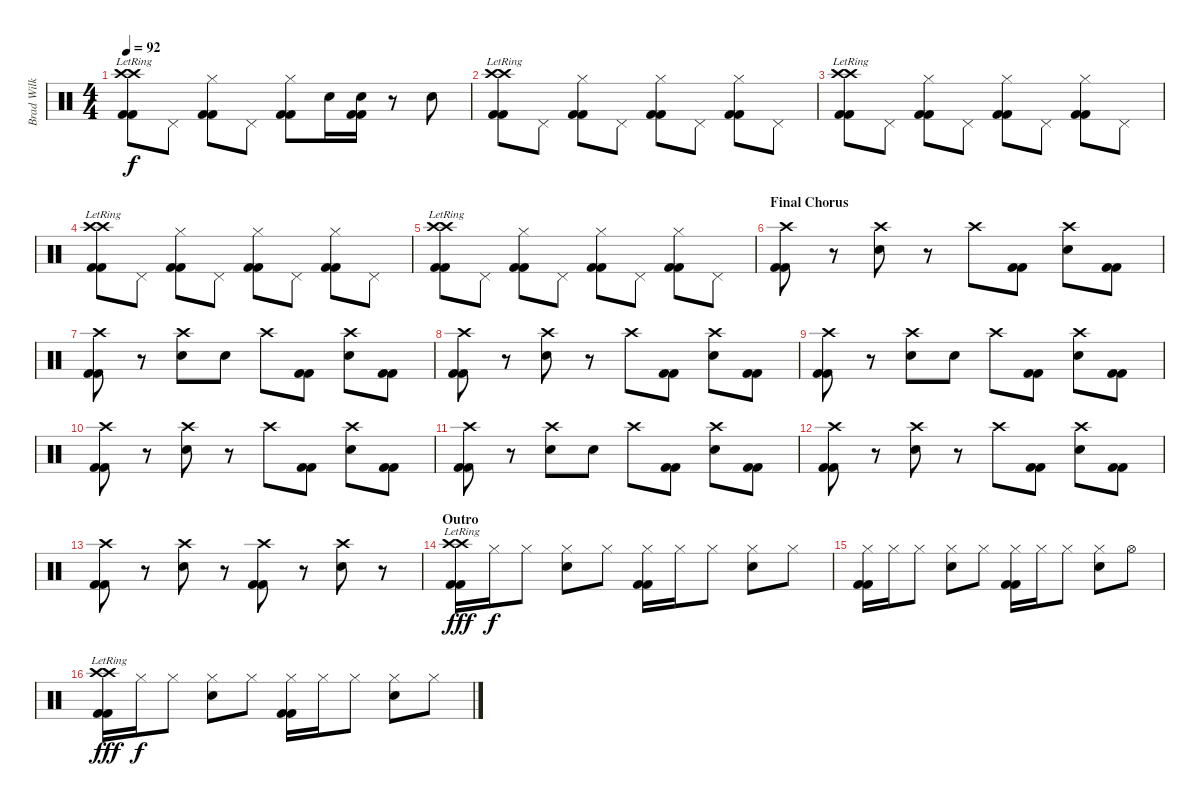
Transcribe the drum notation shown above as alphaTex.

\track ("Brad Wilk" "Brad Wilk") {instrument percussion}
\staff {score}
\articulation defaults
\ts (4 4)
\tempo 92
\clef neutral
\ks c
("Crash high (hit)"{lr} "Crash high (hit)"{lr} "Kick (hit) 2" "Kick (hit) 2").8{dy f} "Pedal Hi-Hat (hit)".8 ("Hi-Hat (closed)" "Kick (hit) 2" "Kick (hit) 2").8 "Pedal Hi-Hat (hit)".8 ("Hi-Hat (closed)" "Kick (hit) 2" "Kick (hit) 2").8 "Electric Snare (hit)".16 ("Electric Snare (hit)" "Kick (hit) 2" "Kick (hit) 2").16 r.8 "Electric Snare (hit)".8 |
("Crash high (hit)"{lr} "Crash high (hit)"{lr} "Kick (hit) 2" "Kick (hit) 2").8 "Pedal Hi-Hat (hit)".8 ("Hi-Hat (closed)" "Kick (hit) 2" "Kick (hit) 2").8 "Pedal Hi-Hat (hit)".8 ("Hi-Hat (closed)" "Kick (hit) 2" "Kick (hit) 2").8 "Pedal Hi-Hat (hit)".8 ("Hi-Hat (closed)" "Kick (hit) 2" "Kick (hit) 2").8 "Pedal Hi-Hat (hit)".8 |
("Crash high (hit)"{lr} "Crash high (hit)"{lr} "Kick (hit) 2" "Kick (hit) 2").8 "Pedal Hi-Hat (hit)".8 ("Hi-Hat (closed)" "Kick (hit) 2" "Kick (hit) 2").8 "Pedal Hi-Hat (hit)".8 ("Hi-Hat (closed)" "Kick (hit) 2" "Kick (hit) 2").8 "Pedal Hi-Hat (hit)".8 ("Hi-Hat (closed)" "Kick (hit) 2" "Kick (hit) 2").8 "Pedal Hi-Hat (hit)".8 |
("Crash high (hit)"{lr} "Crash high (hit)"{lr} "Kick (hit) 2" "Kick (hit) 2").8 "Pedal Hi-Hat (hit)".8 ("Hi-Hat (closed)" "Kick (hit) 2" "Kick (hit) 2").8 "Pedal Hi-Hat (hit)".8 ("Hi-Hat (closed)" "Kick (hit) 2" "Kick (hit) 2").8 "Pedal Hi-Hat (hit)".8 ("Hi-Hat (closed)" "Kick (hit) 2" "Kick (hit) 2").8 "Pedal Hi-Hat (hit)".8 |
("Crash high (hit)"{lr} "Crash high (hit)"{lr} "Kick (hit) 2" "Kick (hit) 2").8 "Pedal Hi-Hat (hit)".8 ("Hi-Hat (closed)" "Kick (hit) 2" "Kick (hit) 2").8 "Pedal Hi-Hat (hit)".8 ("Hi-Hat (closed)" "Kick (hit) 2" "Kick (hit) 2").8 "Pedal Hi-Hat (hit)".8 ("Hi-Hat (closed)" "Kick (hit) 2" "Kick (hit) 2").8 "Pedal Hi-Hat (hit)".8 |
\section ("" "Final Chorus")
("Crash high (hit)" "Kick (hit) 2" "Kick (hit) 2").8 r.8 ("Crash high (hit)" "Electric Snare (hit)").8 r.8 "Crash high (hit)".8 ("Kick (hit) 2" "Kick (hit) 2").8 ("Crash high (hit)" "Electric Snare (hit)").8 ("Kick (hit) 2" "Kick (hit) 2").8 |
("Crash high (hit)" "Kick (hit) 2" "Kick (hit) 2").8 r.8 ("Crash high (hit)" "Electric Snare (hit)").8 "Electric Snare (hit)".8 "Crash high (hit)".8 ("Kick (hit) 2" "Kick (hit) 2").8 ("Crash high (hit)" "Electric Snare (hit)").8 ("Kick (hit) 2" "Kick (hit) 2").8 |
("Crash high (hit)" "Kick (hit) 2" "Kick (hit) 2").8 r.8 ("Crash high (hit)" "Electric Snare (hit)").8 r.8 "Crash high (hit)".8 ("Kick (hit) 2" "Kick (hit) 2").8 ("Crash high (hit)" "Electric Snare (hit)").8 ("Kick (hit) 2" "Kick (hit) 2").8 |
("Crash high (hit)" "Kick (hit) 2" "Kick (hit) 2").8 r.8 ("Crash high (hit)" "Electric Snare (hit)").8 "Electric Snare (hit)".8 "Crash high (hit)".8 ("Kick (hit) 2" "Kick (hit) 2").8 ("Crash high (hit)" "Electric Snare (hit)").8 ("Kick (hit) 2" "Kick (hit) 2").8 |
("Crash high (hit)" "Kick (hit) 2" "Kick (hit) 2").8 r.8 ("Crash high (hit)" "Electric Snare (hit)").8 r.8 "Crash high (hit)".8 ("Kick (hit) 2" "Kick (hit) 2").8 ("Crash high (hit)" "Electric Snare (hit)").8 ("Kick (hit) 2" "Kick (hit) 2").8 |
("Crash high (hit)" "Kick (hit) 2" "Kick (hit) 2").8 r.8 ("Crash high (hit)" "Electric Snare (hit)").8 "Electric Snare (hit)".8 "Crash high (hit)".8 ("Kick (hit) 2" "Kick (hit) 2").8 ("Crash high (hit)" "Electric Snare (hit)").8 ("Kick (hit) 2" "Kick (hit) 2").8 |
("Crash high (hit)" "Kick (hit) 2" "Kick (hit) 2").8 r.8 ("Crash high (hit)" "Electric Snare (hit)").8 r.8 "Crash high (hit)".8 ("Kick (hit) 2" "Kick (hit) 2").8 ("Crash high (hit)" "Electric Snare (hit)").8 ("Kick (hit) 2" "Kick (hit) 2").8 |
("Crash high (hit)" "Kick (hit) 2" "Kick (hit) 2").8 r.8 ("Crash high (hit)" "Electric Snare (hit)").8 r.8 ("Crash high (hit)" "Kick (hit) 2" "Kick (hit) 2").8 r.8 ("Crash high (hit)" "Electric Snare (hit)").8 r.8 |
\section ("" "Outro")
("Crash high (hit)"{lr} "Crash high (hit)"{lr} "Kick (hit) 2" "Kick (hit) 2").16{dy fff} "Hi-Hat (closed)".16{dy f} "Hi-Hat (closed)".8 ("Hi-Hat (closed)" "Electric Snare (hit)").8 "Hi-Hat (closed)".8 ("Hi-Hat (closed)" "Kick (hit) 2" "Kick (hit) 2").16 "Hi-Hat (closed)".16 "Hi-Hat (closed)".8 ("Hi-Hat (closed)" "Snare (hit) 2").8 "Hi-Hat (closed)".8 |
("Hi-Hat (closed)" "Kick (hit) 2" "Kick (hit) 2").16 "Hi-Hat (closed)".16 "Hi-Hat (closed)".8 ("Hi-Hat (closed)" "Snare (hit) 2").8 "Hi-Hat (closed)".8 ("Hi-Hat (closed)" "Kick (hit) 2" "Kick (hit) 2").16 "Hi-Hat (closed)".16 "Hi-Hat (closed)".8 ("Hi-Hat (closed)" "Snare (hit) 2").8 "Hi-Hat (open)".8 |
("Crash high (hit)"{lr} "Crash high (hit)"{lr} "Kick (hit) 2" "Kick (hit) 2").16{dy fff} "Hi-Hat (closed)".16{dy f} "Hi-Hat (closed)".8 ("Hi-Hat (closed)" "Electric Snare (hit)").8 "Hi-Hat (closed)".8 ("Hi-Hat (closed)" "Kick (hit) 2" "Kick (hit) 2").16 "Hi-Hat (closed)".16 "Hi-Hat (closed)".8 ("Hi-Hat (closed)" "Snare (hit) 2").8 "Hi-Hat (closed)".8
